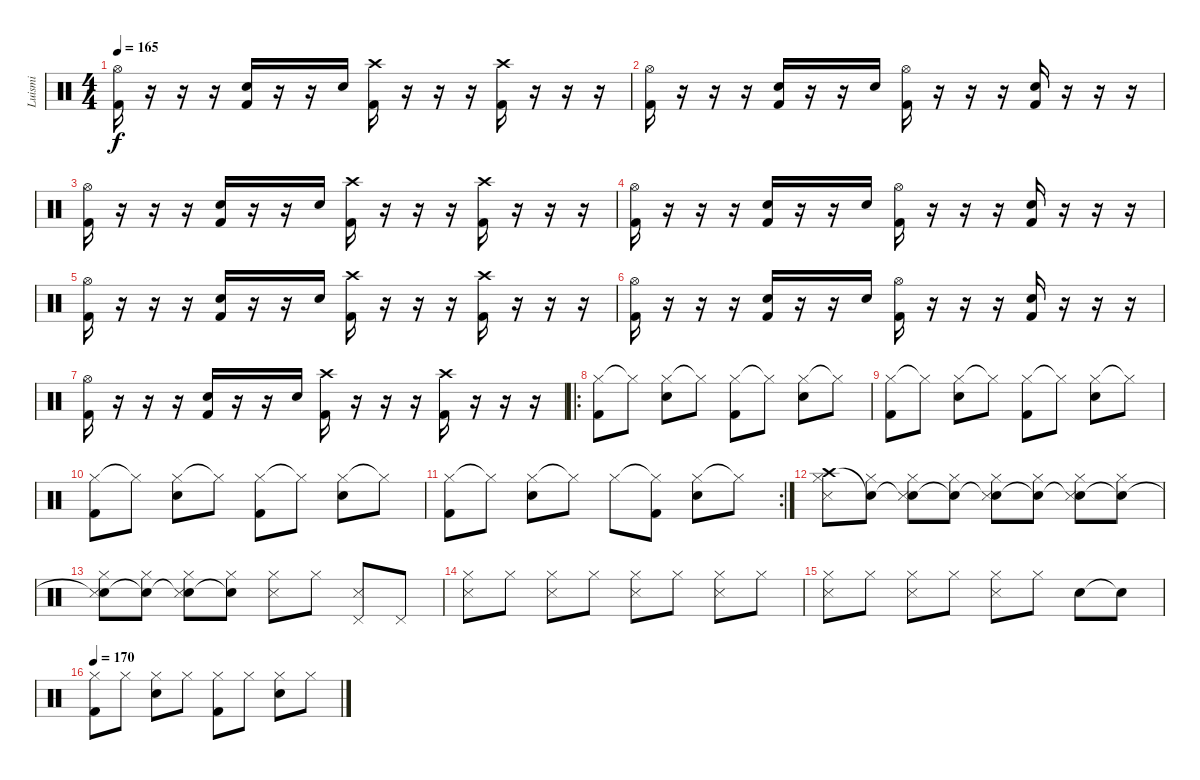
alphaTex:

\track ("Luismi" "Luismi") {instrument percussion}
\staff {score}
\articulation defaults
\ts (4 4)
\tempo 165
\clef neutral
\ks c
("Kick (hit) 2" "Hi-Hat (open)").16{dy f} r.16 r.16 r.16 ("Kick (hit) 2" "Electric Snare (hit)").16 r.16 r.16 "Electric Snare (hit)".16 ("Kick (hit) 2" "Crash high (hit)").16 r.16 r.16 r.16 ("Kick (hit) 2" "Crash high (hit)").16 r.16 r.16 r.16 |
("Kick (hit) 2" "Hi-Hat (open)").16 r.16 r.16 r.16 ("Kick (hit) 2" "Electric Snare (hit)").16 r.16 r.16 "Electric Snare (hit)".16 ("Kick (hit) 2" "Hi-Hat (open)").16 r.16 r.16 r.16 ("Kick (hit) 2" "Electric Snare (hit)").16 r.16 r.16 r.16 |
("Kick (hit) 2" "Hi-Hat (open)").16 r.16 r.16 r.16 ("Kick (hit) 2" "Electric Snare (hit)").16 r.16 r.16 "Electric Snare (hit)".16 ("Kick (hit) 2" "Crash high (hit)").16 r.16 r.16 r.16 ("Kick (hit) 2" "Crash high (hit)").16 r.16 r.16 r.16 |
("Kick (hit) 2" "Hi-Hat (open)").16 r.16 r.16 r.16 ("Kick (hit) 2" "Electric Snare (hit)").16 r.16 r.16 "Electric Snare (hit)".16 ("Kick (hit) 2" "Hi-Hat (open)").16 r.16 r.16 r.16 ("Kick (hit) 2" "Electric Snare (hit)").16 r.16 r.16 r.16 |
("Kick (hit) 2" "Hi-Hat (open)").16 r.16 r.16 r.16 ("Kick (hit) 2" "Electric Snare (hit)").16 r.16 r.16 "Electric Snare (hit)".16 ("Kick (hit) 2" "Crash high (hit)").16 r.16 r.16 r.16 ("Kick (hit) 2" "Crash high (hit)").16 r.16 r.16 r.16 |
("Kick (hit) 2" "Hi-Hat (open)").16 r.16 r.16 r.16 ("Kick (hit) 2" "Electric Snare (hit)").16 r.16 r.16 "Electric Snare (hit)".16 ("Kick (hit) 2" "Hi-Hat (open)").16 r.16 r.16 r.16 ("Kick (hit) 2" "Electric Snare (hit)").16 r.16 r.16 r.16 |
("Kick (hit) 2" "Hi-Hat (open)").16 r.16 r.16 r.16 ("Kick (hit) 2" "Electric Snare (hit)").16 r.16 r.16 "Electric Snare (hit)".16 ("Kick (hit) 2" "Crash high (hit)").16 r.16 r.16 r.16 ("Kick (hit) 2" "Crash high (hit)").16 r.16 r.16 r.16 |
\ro
("Hi-Hat (closed)" "Kick (hit) 2").8 "Hi-Hat (closed)"{t}.8 ("Hi-Hat (closed)" "Electric Snare (hit)").8 "Hi-Hat (closed)"{t}.8 ("Hi-Hat (closed)" "Kick (hit) 2").8 "Hi-Hat (closed)"{t}.8 ("Hi-Hat (closed)" "Electric Snare (hit)").8 "Hi-Hat (closed)"{t}.8 |
("Hi-Hat (closed)" "Kick (hit) 2").8 "Hi-Hat (closed)"{t}.8 ("Hi-Hat (closed)" "Electric Snare (hit)").8 "Hi-Hat (closed)"{t}.8 ("Hi-Hat (closed)" "Kick (hit) 2").8 "Hi-Hat (closed)"{t}.8 ("Hi-Hat (closed)" "Electric Snare (hit)").8 "Hi-Hat (closed)"{t}.8 |
("Hi-Hat (closed)" "Kick (hit) 2").8 "Hi-Hat (closed)"{t}.8 ("Hi-Hat (closed)" "Electric Snare (hit)").8 "Hi-Hat (closed)"{t}.8 ("Hi-Hat (closed)" "Kick (hit) 2").8 "Hi-Hat (closed)"{t}.8 ("Hi-Hat (closed)" "Electric Snare (hit)").8 "Hi-Hat (closed)"{t}.8 |
\rc 2
("Hi-Hat (closed)" "Kick (hit) 2").8 "Hi-Hat (closed)"{t}.8 ("Hi-Hat (closed)" "Electric Snare (hit)").8 "Hi-Hat (closed)"{t}.8 "Hi-Hat (closed)".8 ("Hi-Hat (closed)"{t} "Kick (hit) 2").8 ("Hi-Hat (closed)" "Electric Snare (hit)").8 "Hi-Hat (closed)"{t}.8 |
("Crash high (hit)" "Snare (side stick) 3" "Hi-Hat (closed)").8 ("Snare (hit)"{t} "Hi-Hat (closed)").8 ("Snare (hit)"{t} "Snare (side stick) 3" "Hi-Hat (closed)").8 ("Snare (hit)"{t} "Hi-Hat (closed)").8 ("Snare (hit)"{t} "Snare (side stick) 3" "Hi-Hat (closed)").8 ("Snare (hit)"{t} "Hi-Hat (closed)").8 ("Snare (hit)"{t} "Snare (side stick) 3" "Hi-Hat (closed)").8 ("Snare (hit)"{t} "Hi-Hat (closed)").8 |
("Snare (hit)"{t} "Snare (side stick) 3" "Hi-Hat (closed)").8 ("Snare (hit)"{t} "Hi-Hat (closed)").8 ("Snare (hit)"{t} "Snare (side stick) 3" "Hi-Hat (closed)").8 ("Snare (hit)"{t} "Hi-Hat (closed)").8 ("Snare (side stick) 3" "Hi-Hat (closed)").8 "Hi-Hat (closed)".8 ("Snare (side stick) 3" "Pedal Hi-Hat (hit)").8 "Pedal Hi-Hat (hit)".8 |
("Snare (side stick) 3" "Hi-Hat (closed)").8 "Hi-Hat (closed)".8 ("Snare (side stick) 3" "Hi-Hat (closed)").8 "Hi-Hat (closed)".8 ("Snare (side stick) 3" "Hi-Hat (closed)").8 "Hi-Hat (closed)".8 ("Snare (side stick) 3" "Hi-Hat (closed)").8 "Hi-Hat (closed)".8 |
("Snare (side stick) 3" "Hi-Hat (closed)").8 "Hi-Hat (closed)".8 ("Snare (side stick) 3" "Hi-Hat (closed)").8 "Hi-Hat (closed)".8 ("Snare (side stick) 3" "Hi-Hat (closed)").8 "Hi-Hat (closed)".8 "Electric Snare (hit)".8 "Snare (hit)"{t}.8 |
\tempo 170
("Kick (hit) 2" "Hi-Hat (closed)").8 "Hi-Hat (closed)".8 ("Electric Snare (hit)" "Hi-Hat (closed)").8 "Hi-Hat (closed)".8 ("Kick (hit) 2" "Hi-Hat (closed)").8 "Hi-Hat (closed)".8 ("Electric Snare (hit)" "Hi-Hat (closed)").8 "Hi-Hat (closed)".8
